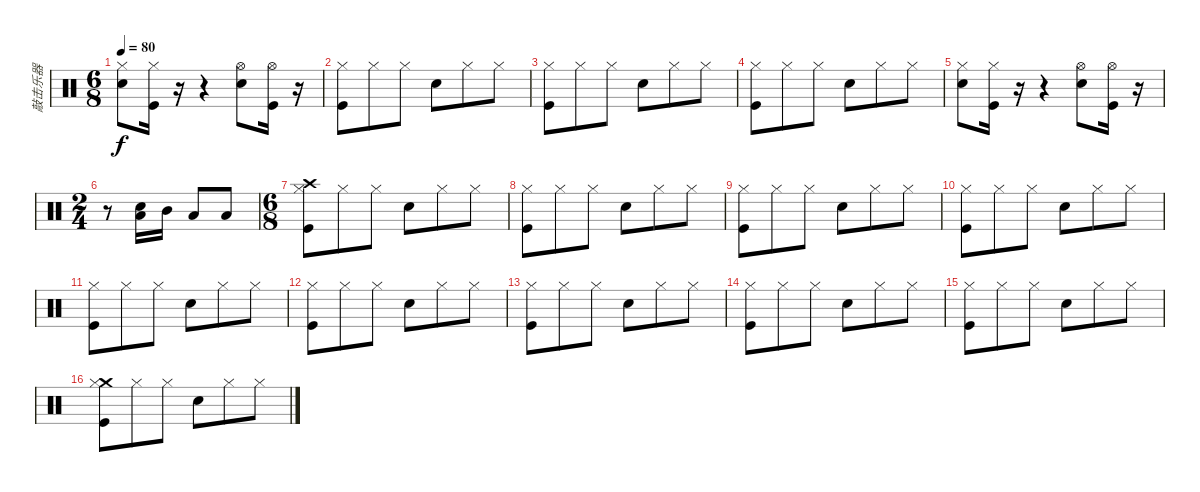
\track ("敲击乐器" "敲击乐器") {instrument percussion}
\staff {score}
\articulation defaults
\ts (6 8)
\tempo 80
\clef neutral
\ks c
("Hi-Hat (closed)" "Snare (hit) 2").8{dy f} ("Hi-Hat (closed)" "Kick (hit)").16 r.16 r.4 ("Hi-Hat (open)" "Snare (hit) 2").8 ("Hi-Hat (open)" "Kick (hit)").16 r.16 |
("Hi-Hat (closed)" "Kick (hit)").8 "Hi-Hat (closed)".8 "Hi-Hat (closed)".8 "Snare (hit) 2".8 "Hi-Hat (closed)".8 "Hi-Hat (closed)".8 |
("Hi-Hat (closed)" "Kick (hit)").8 "Hi-Hat (closed)".8 "Hi-Hat (closed)".8 "Snare (hit) 2".8 "Hi-Hat (closed)".8 "Hi-Hat (closed)".8 |
("Hi-Hat (closed)" "Kick (hit)").8 "Hi-Hat (closed)".8 "Hi-Hat (closed)".8 "Snare (hit) 2".8 "Hi-Hat (closed)".8 "Hi-Hat (closed)".8 |
("Hi-Hat (closed)" "Snare (hit) 2").8 ("Hi-Hat (closed)" "Kick (hit)").16 r.16 r.4 ("Hi-Hat (open)" "Snare (hit) 2").8 ("Hi-Hat (open)" "Kick (hit)").16 r.16 |
\ts (2 4)
r.8 ("Snare (hit) 2" "Low Tom (hit)").16 "Mid Tom (hit)".16 "Low Tom (hit)".8 "Low Floor Tom (hit)".8 |
\ts (6 8)
("Crash high (hit)" "Hi-Hat (closed)" "Kick (hit)").8 "Hi-Hat (closed)".8 "Hi-Hat (closed)".8 "Snare (hit) 2".8 "Hi-Hat (closed)".8 "Hi-Hat (closed)".8 |
("Hi-Hat (closed)" "Kick (hit)").8 "Hi-Hat (closed)".8 "Hi-Hat (closed)".8 "Snare (hit) 2".8 "Hi-Hat (closed)".8 "Hi-Hat (closed)".8 |
("Hi-Hat (closed)" "Kick (hit)").8 "Hi-Hat (closed)".8 "Hi-Hat (closed)".8 "Snare (hit) 2".8 "Hi-Hat (closed)".8 "Hi-Hat (closed)".8 |
("Hi-Hat (closed)" "Kick (hit)").8 "Hi-Hat (closed)".8 "Hi-Hat (closed)".8 "Snare (hit) 2".8 "Hi-Hat (closed)".8 "Hi-Hat (closed)".8 |
("Hi-Hat (closed)" "Kick (hit)").8 "Hi-Hat (closed)".8 "Hi-Hat (closed)".8 "Snare (hit) 2".8 "Hi-Hat (closed)".8 "Hi-Hat (closed)".8 |
("Hi-Hat (closed)" "Kick (hit)").8 "Hi-Hat (closed)".8 "Hi-Hat (closed)".8 "Snare (hit) 2".8 "Hi-Hat (closed)".8 "Hi-Hat (closed)".8 |
("Hi-Hat (closed)" "Kick (hit)").8 "Hi-Hat (closed)".8 "Hi-Hat (closed)".8 "Snare (hit) 2".8 "Hi-Hat (closed)".8 "Hi-Hat (closed)".8 |
("Hi-Hat (closed)" "Kick (hit)").8 "Hi-Hat (closed)".8 "Hi-Hat (closed)".8 "Snare (hit) 2".8 "Hi-Hat (closed)".8 "Hi-Hat (closed)".8 |
("Hi-Hat (closed)" "Kick (hit)").8 "Hi-Hat (closed)".8 "Hi-Hat (closed)".8 "Snare (hit) 2".8 "Hi-Hat (closed)".8 "Hi-Hat (closed)".8 |
("Crash medium (hit)" "Hi-Hat (closed)" "Kick (hit)").8 "Hi-Hat (closed)".8 "Hi-Hat (closed)".8 "Snare (hit) 2".8 "Hi-Hat (closed)".8 "Hi-Hat (closed)".8
